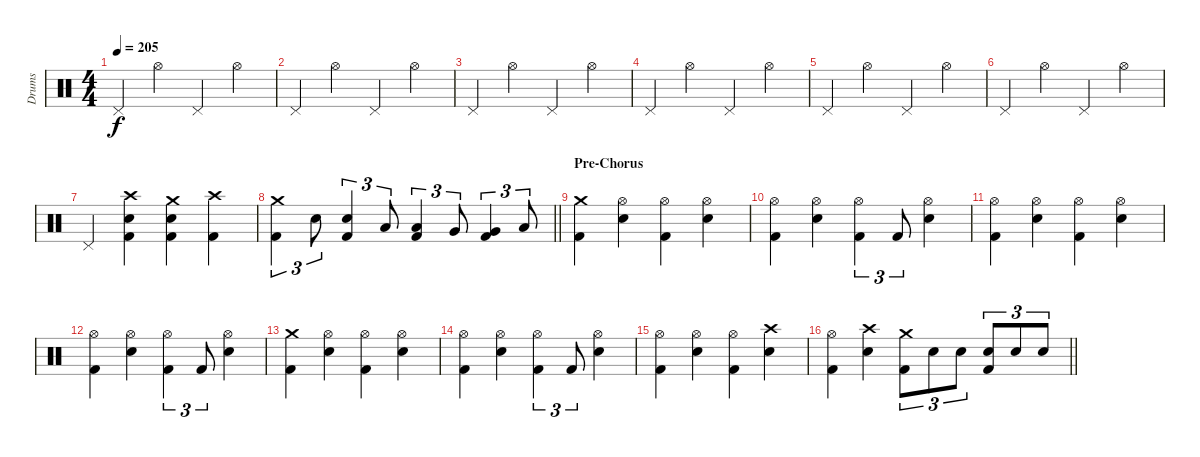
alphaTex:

\track ("Drums" "Drums") {instrument percussion}
\staff {score}
\articulation defaults
\ts (4 4)
\tempo 205
\clef neutral
\ks c "Pedal Hi-Hat (hit)".4{dy f} "Hi-Hat (open)".4 "Pedal Hi-Hat (hit)".4 "Hi-Hat (open)".4
|
"Pedal Hi-Hat (hit)".4 "Hi-Hat (open)".4 "Pedal Hi-Hat (hit)".4 "Hi-Hat (open)".4 |
"Pedal Hi-Hat (hit)".4 "Hi-Hat (open)".4 "Pedal Hi-Hat (hit)".4 "Hi-Hat (open)".4 |
"Pedal Hi-Hat (hit)".4 "Hi-Hat (open)".4 "Pedal Hi-Hat (hit)".4 "Hi-Hat (open)".4 |
"Pedal Hi-Hat (hit)".4 "Hi-Hat (open)".4 "Pedal Hi-Hat (hit)".4 "Hi-Hat (open)".4 |
"Pedal Hi-Hat (hit)".4 "Hi-Hat (open)".4 "Pedal Hi-Hat (hit)".4 "Hi-Hat (open)".4 |
"Pedal Hi-Hat (hit)".4 ("Crash high (hit)" "Electric Snare (hit)" "Kick (hit) 2").4 ("Crash medium (hit)" "Electric Snare (hit)" "Kick (hit) 2").4 ("Crash high (hit)" "Kick (hit) 2").4 |
\barLineRight lightlight
("Crash medium (hit)" "Kick (hit) 2").4{tu (3 2)} "Electric Snare (hit)".8{tu (3 2)} ("Electric Snare (hit)" "Kick (hit) 2").4{tu (3 2)} "Low Tom (hit)".8{tu (3 2)} ("Low Tom (hit)" "Kick (hit) 2").4{tu (3 2)} "Very Low Tom (hit)".8{tu (3 2)} ("Very Low Tom (hit)" "Kick (hit) 2").4{tu (3 2)} "Low Floor Tom (hit)".8{tu (3 2)} |
\section ("" "Pre-Chorus")
("Crash medium (hit)" "Kick (hit) 2").4 ("Hi-Hat (open)" "Electric Snare (hit)").4 ("Hi-Hat (open)" "Kick (hit) 2").4 ("Hi-Hat (open)" "Electric Snare (hit)").4 |
("Hi-Hat (open)" "Kick (hit) 2").4 ("Hi-Hat (open)" "Electric Snare (hit)").4 ("Hi-Hat (open)" "Kick (hit) 2").4{tu (3 2)} "Kick (hit) 2".8{tu (3 2)} ("Hi-Hat (open)" "Electric Snare (hit)").4 |
("Hi-Hat (open)" "Kick (hit) 2").4 ("Hi-Hat (open)" "Electric Snare (hit)").4 ("Hi-Hat (open)" "Kick (hit) 2").4 ("Hi-Hat (open)" "Electric Snare (hit)").4 |
("Hi-Hat (open)" "Kick (hit) 2").4 ("Hi-Hat (open)" "Electric Snare (hit)").4 ("Hi-Hat (open)" "Kick (hit) 2").4{tu (3 2)} "Kick (hit) 2".8{tu (3 2)} ("Hi-Hat (open)" "Electric Snare (hit)").4 |
("Crash medium (hit)" "Kick (hit) 2").4 ("Hi-Hat (open)" "Electric Snare (hit)").4 ("Hi-Hat (open)" "Kick (hit) 2").4 ("Hi-Hat (open)" "Electric Snare (hit)").4 |
("Hi-Hat (open)" "Kick (hit) 2").4 ("Hi-Hat (open)" "Electric Snare (hit)").4 ("Hi-Hat (open)" "Kick (hit) 2").4{tu (3 2)} "Kick (hit) 2".8{tu (3 2)} ("Hi-Hat (open)" "Electric Snare (hit)").4 |
("Hi-Hat (open)" "Kick (hit) 2").4 ("Hi-Hat (open)" "Electric Snare (hit)").4 ("Hi-Hat (open)" "Kick (hit) 2").4 ("Crash high (hit)" "Electric Snare (hit)").4 |
\barLineRight lightlight
("Hi-Hat (open)" "Kick (hit) 2").4 ("Crash high (hit)" "Electric Snare (hit)").4 ("Crash medium (hit)" "Kick (hit) 2").8{tu (3 2)} "Electric Snare (hit)".8{tu (3 2)} "Electric Snare (hit)".8{tu (3 2)} ("Electric Snare (hit)" "Kick (hit) 2").8{tu (3 2)} "Electric Snare (hit)".8{tu (3 2)} "Electric Snare (hit)".8{tu (3 2)}
